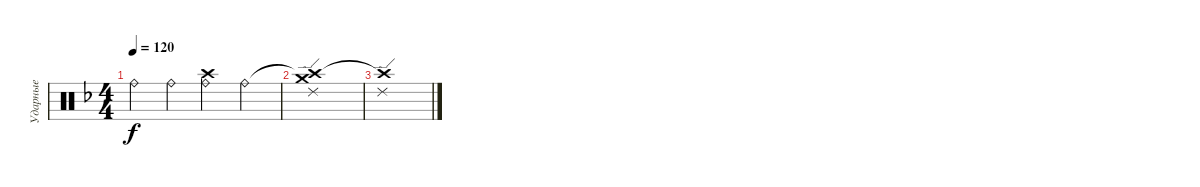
\track ("Ударные" "Ударные") {instrument percussion}
\staff {score}
\articulation defaults
\ts (4 4)
\tempo 120
\clef neutral
\ks f "Ride (bell)".4{dy f volume 12} "Ride (bell)".4
("Crash high (hit)" "Ride (bell)").4 "Ride (bell)".4 |
("Crash high (hit)"{t} "Crash medium (hit)" "Ride (edge) 2").1 |
("Crash high (hit)"{t} "Ride (edge) 2").1
